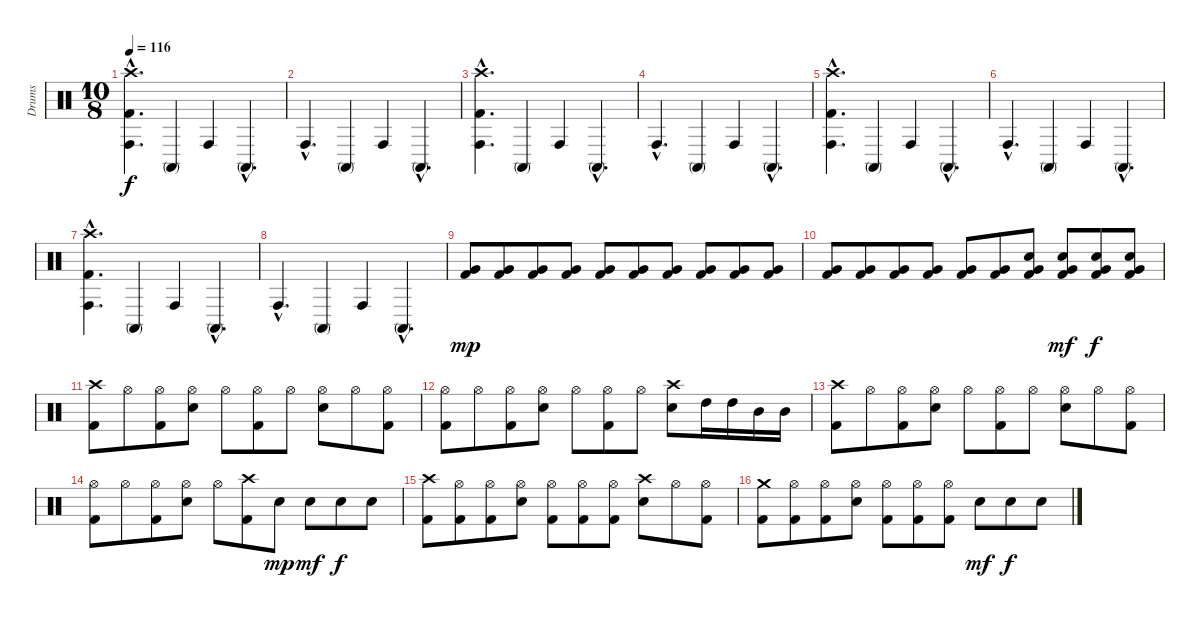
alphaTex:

\track ("Drums" "Drums") {instrument percussion}
\staff {score}
\articulation defaults
\ts (10 8)
\tempo 116
\clef neutral
\ks c
("Crash high (hit)"{hac} "Conga high (hit)"{hac} "Kick (hit) 2"{hac}).4{d dy f} "Conga high (mute)".4 "Conga high (hit)".4 "Conga high (mute)"{hac}.4{d} |
"Conga high (hit)"{hac}.4{d} "Conga high (mute)".4 "Conga high (hit)".4 "Conga high (mute)"{hac}.4{d} |
("Crash high (hit)"{hac} "Conga high (hit)"{hac} "Kick (hit) 2"{hac}).4{d} "Conga high (mute)".4 "Conga high (hit)".4 "Conga high (mute)"{hac}.4{d} |
"Conga high (hit)"{hac}.4{d} "Conga high (mute)".4 "Conga high (hit)".4 "Conga high (mute)"{hac}.4{d} |
("Crash high (hit)"{hac} "Conga high (hit)"{hac} "Kick (hit) 2"{hac}).4{d} "Conga high (mute)".4 "Conga high (hit)".4 "Conga high (mute)"{hac}.4{d} |
"Conga high (hit)"{hac}.4{d} "Conga high (mute)".4 "Conga high (hit)".4 "Conga high (mute)"{hac}.4{d} |
("Crash high (hit)"{hac} "Conga high (hit)"{hac} "Kick (hit) 2"{hac}).4{d} "Conga high (mute)".4 "Conga high (hit)".4 "Conga high (mute)"{hac}.4{d} |
"Conga high (hit)"{hac}.4{d} "Conga high (mute)".4 "Conga high (hit)".4 "Conga high (mute)"{hac}.4{d} |
("Kick (hit) 2" "Very Low Tom (hit)").8{dy mp} ("Kick (hit) 2" "Very Low Tom (hit)").8 ("Kick (hit) 2" "Very Low Tom (hit)").8 ("Kick (hit) 2" "Very Low Tom (hit)").8 ("Kick (hit) 2" "Very Low Tom (hit)").8 ("Kick (hit) 2" "Very Low Tom (hit)").8 ("Kick (hit) 2" "Very Low Tom (hit)").8 ("Kick (hit) 2" "Very Low Tom (hit)").8 ("Kick (hit) 2" "Very Low Tom (hit)").8 ("Kick (hit) 2" "Very Low Tom (hit)").8 |
("Kick (hit) 2" "Very Low Tom (hit)").8 ("Kick (hit) 2" "Very Low Tom (hit)").8 ("Kick (hit) 2" "Very Low Tom (hit)").8 ("Kick (hit) 2" "Very Low Tom (hit)").8 ("Kick (hit) 2" "Very Low Tom (hit)").8 ("Kick (hit) 2" "Very Low Tom (hit)").8 ("Snare (hit) 2" "Kick (hit) 2" "Very Low Tom (hit)").8 ("Snare (hit) 2" "Kick (hit) 2" "Very Low Tom (hit)").8{dy mf} ("Snare (hit) 2" "Kick (hit) 2" "Very Low Tom (hit)").8{dy f} ("Snare (hit) 2" "Kick (hit) 2" "Very Low Tom (hit)").8 |
("Crash high (hit)" "Kick (hit) 2").8 "Hi-Hat (open)".8 ("Hi-Hat (open)" "Kick (hit) 2").8 ("Hi-Hat (open)" "Snare (hit) 2").8 "Hi-Hat (open)".8 ("Hi-Hat (open)" "Kick (hit) 2").8 "Hi-Hat (open)".8 ("Hi-Hat (open)" "Snare (hit) 2").8 "Hi-Hat (open)".8 ("Hi-Hat (open)" "Kick (hit) 2").8 |
("Hi-Hat (open)" "Kick (hit) 2").8 "Hi-Hat (open)".8 ("Hi-Hat (open)" "Kick (hit) 2").8 ("Hi-Hat (open)" "Snare (hit) 2").8 "Hi-Hat (open)".8 ("Hi-Hat (open)" "Kick (hit) 2").8 "Hi-Hat (open)".8 ("Crash high (hit)" "Snare (hit) 2").8 "High Tom (hit)".16 "High Tom (hit)".16 "Mid Tom (hit)".16 "Mid Tom (hit)".16 |
("Crash high (hit)" "Kick (hit) 2").8 "Hi-Hat (open)".8 ("Hi-Hat (open)" "Kick (hit) 2").8 ("Hi-Hat (open)" "Snare (hit) 2").8 "Hi-Hat (open)".8 ("Hi-Hat (open)" "Kick (hit) 2").8 "Hi-Hat (open)".8 ("Hi-Hat (open)" "Snare (hit) 2").8 "Hi-Hat (open)".8 ("Hi-Hat (open)" "Kick (hit) 2").8 |
("Hi-Hat (open)" "Kick (hit) 2").8 "Hi-Hat (open)".8 ("Hi-Hat (open)" "Kick (hit) 2").8 ("Hi-Hat (open)" "Snare (hit) 2").8 "Hi-Hat (open)".8 ("Crash high (hit)" "Kick (hit) 2").8 "Snare (hit) 2".8{dy mp} "Snare (hit) 2".8{dy mf} "Snare (hit) 2".8{dy f} "Snare (hit) 2".8 |
("Crash high (hit)" "Kick (hit) 2").8 ("Hi-Hat (open)" "Kick (hit) 2").8 ("Hi-Hat (open)" "Kick (hit) 2").8 ("Hi-Hat (open)" "Snare (hit) 2").8 ("Hi-Hat (open)" "Kick (hit) 2").8 ("Hi-Hat (open)" "Kick (hit) 2").8 ("Hi-Hat (open)" "Kick (hit) 2").8 ("Crash high (hit)" "Snare (hit) 2").8 "Hi-Hat (open)".8 ("Hi-Hat (open)" "Kick (hit) 2").8 |
("Crash medium (hit)" "Kick (hit) 2").8 ("Hi-Hat (open)" "Kick (hit) 2").8 ("Hi-Hat (open)" "Kick (hit) 2").8 ("Hi-Hat (open)" "Snare (hit) 2").8 ("Hi-Hat (open)" "Kick (hit) 2").8 ("Hi-Hat (open)" "Kick (hit) 2").8 ("Hi-Hat (open)" "Kick (hit) 2").8 "Snare (hit) 2".8{dy mf} "Snare (hit) 2".8{dy f} "Snare (hit) 2".8
